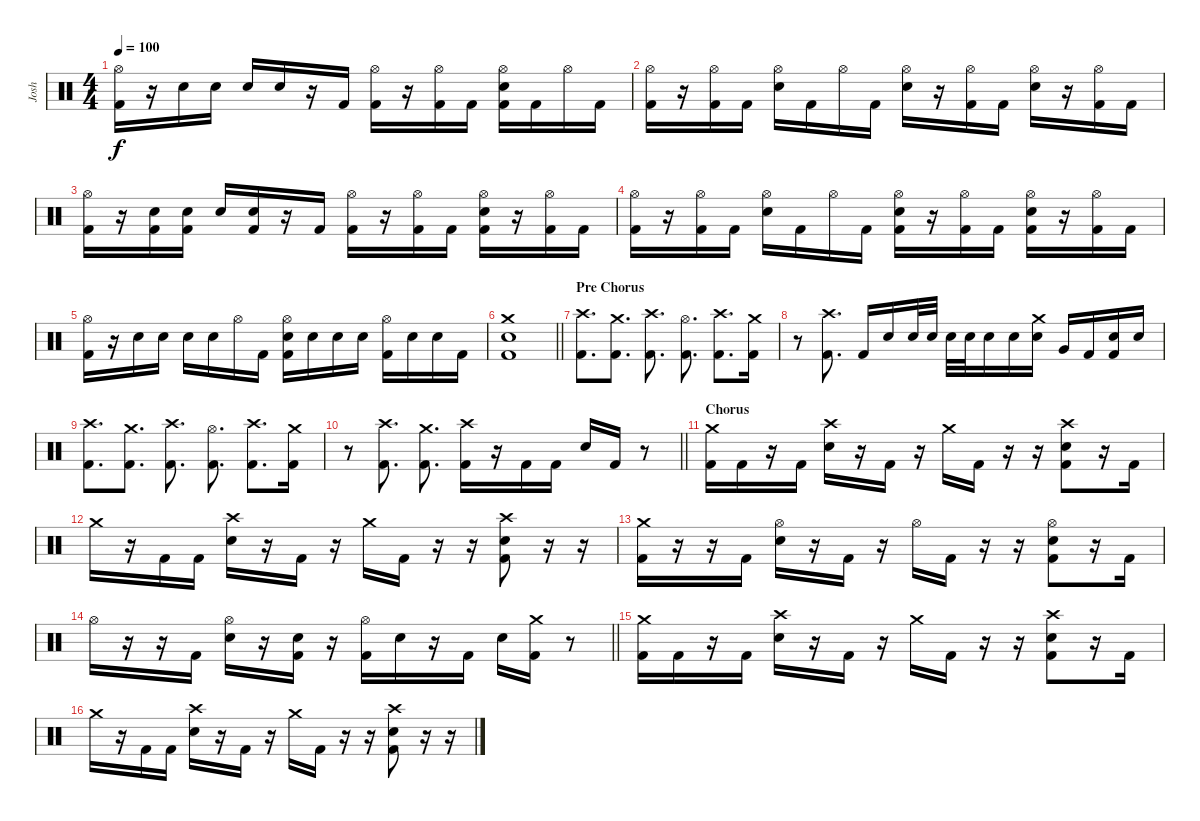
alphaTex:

\track ("Josh" "Josh") {instrument percussion}
\staff {score}
\articulation defaults
\ts (4 4)
\tempo 100
\clef neutral
\ks c
("Hi-Hat (open)" "Kick (hit) 2").16{dy f} r.16 "Snare (hit) 2".16 "Snare (hit) 2".16 "Snare (hit) 2".16 "Snare (hit) 2".16 r.16 "Kick (hit) 2".16 ("Hi-Hat (open)" "Kick (hit) 2").16 r.16 ("Hi-Hat (open)" "Kick (hit) 2").16 "Kick (hit) 2".16 ("Hi-Hat (open)" "Snare (hit) 2" "Kick (hit) 2").16 "Kick (hit) 2".16 "Hi-Hat (open)".16 "Kick (hit) 2".16 |
("Hi-Hat (open)" "Kick (hit) 2").16 r.16 ("Hi-Hat (open)" "Kick (hit) 2").16 "Kick (hit) 2".16 ("Hi-Hat (open)" "Snare (hit) 2").16 "Kick (hit) 2".16 "Hi-Hat (open)".16 "Kick (hit) 2".16 ("Hi-Hat (open)" "Snare (hit) 2").16 r.16 ("Hi-Hat (open)" "Kick (hit) 2").16 "Kick (hit) 2".16 ("Hi-Hat (open)" "Snare (hit) 2").16 r.16 ("Hi-Hat (open)" "Kick (hit) 2").16 "Kick (hit) 2".16 |
("Hi-Hat (open)" "Kick (hit) 2").16 r.16 ("Snare (hit) 2" "Kick (hit) 2").16 ("Snare (hit) 2" "Kick (hit) 2").16 "Snare (hit) 2".16 ("Snare (hit) 2" "Kick (hit) 2").16 r.16 "Kick (hit) 2".16 ("Hi-Hat (open)" "Kick (hit) 2").16 r.16 ("Hi-Hat (open)" "Kick (hit) 2").16 "Kick (hit) 2".16 ("Hi-Hat (open)" "Snare (hit) 2" "Kick (hit) 2").16 r.16 ("Hi-Hat (open)" "Kick (hit) 2").16 "Kick (hit) 2".16 |
("Hi-Hat (open)" "Kick (hit) 2").16 r.16 ("Hi-Hat (open)" "Kick (hit) 2").16 "Kick (hit) 2".16 ("Hi-Hat (open)" "Snare (hit) 2").16 "Kick (hit) 2".16 "Hi-Hat (open)".16 "Kick (hit) 2".16 ("Hi-Hat (open)" "Snare (hit) 2" "Kick (hit) 2").16 r.16 ("Hi-Hat (open)" "Kick (hit) 2").16 "Kick (hit) 2".16 ("Hi-Hat (open)" "Snare (hit) 2" "Kick (hit) 2").16 r.16 ("Hi-Hat (open)" "Kick (hit) 2").16 "Kick (hit) 2".16 |
("Hi-Hat (open)" "Kick (hit) 2").16 r.16 "Snare (hit) 2".16 "Snare (hit) 2".16 "Snare (hit) 2".16 "Snare (hit) 2".16 "Hi-Hat (open)".16 "Kick (hit) 2".16 ("Hi-Hat (open)" "Snare (hit) 2" "Kick (hit) 2").16 "Snare (hit) 2".16 "Snare (hit) 2".16 "Snare (hit) 2".16 ("Hi-Hat (open)" "Kick (hit) 2").16 "Snare (hit) 2".16 "Snare (hit) 2".16 "Kick (hit) 2".16 |
\barLineRight lightlight
("Crash medium (hit)" "Snare (hit) 2" "Kick (hit) 2").1 |
\section ("" "Pre Chorus")
("Crash high (hit)" "Kick (hit) 2").8{d} ("Crash medium (hit)" "Kick (hit) 2").8{d} ("Crash high (hit)" "Kick (hit) 2").8{d} ("Hi-Hat (open)" "Kick (hit) 2").8{d} ("Crash high (hit)" "Kick (hit) 2").8{d} ("Crash medium (hit)" "Kick (hit) 2").16 |
r.8 ("Crash high (hit)" "Kick (hit) 2").8{d} "Kick (hit) 2".16 "Snare (hit) 2".16 "Snare (hit) 2".32 "Snare (hit) 2".32 "Snare (hit) 2".32 "Snare (hit) 2".32 "Snare (hit) 2".16 "Snare (hit) 2".16 ("Crash medium (hit)" "Snare (hit) 2").16 "Very Low Tom (hit)".16 "Kick (hit) 2".16 ("Snare (hit) 2" "Kick (hit) 2").16 "Snare (hit) 2".16 |
("Crash high (hit)" "Kick (hit) 2").8{d} ("Crash medium (hit)" "Kick (hit) 2").8{d} ("Crash high (hit)" "Kick (hit) 2").8{d} ("Hi-Hat (open)" "Kick (hit) 2").8{d} ("Crash high (hit)" "Kick (hit) 2").8{d} ("Crash medium (hit)" "Kick (hit) 2").16 |
\barLineRight lightlight
r.8 ("Crash high (hit)" "Kick (hit) 2").8{d} ("Crash medium (hit)" "Kick (hit) 2").8{d} ("Crash high (hit)" "Kick (hit) 2").16 r.16 "Kick (hit) 2".16 "Kick (hit) 2".16 "Snare (hit) 2".16 "Kick (hit) 2".16 r.8 |
\section ("" "Chorus")
("Crash medium (hit)" "Kick (hit) 2").16 "Kick (hit) 2".16 r.16 "Kick (hit) 2".16 ("Crash high (hit)" "Snare (hit) 2").16 r.16 "Kick (hit) 2".16 r.16 "Crash medium (hit)".16 "Kick (hit) 2".16 r.16 r.16 ("Crash high (hit)" "Snare (hit) 2" "Kick (hit) 2").8 r.16 "Kick (hit) 2".16 |
"Crash medium (hit)".16 r.16 "Kick (hit) 2".16 "Kick (hit) 2".16 ("Crash high (hit)" "Snare (hit) 2").16 r.16 "Kick (hit) 2".16 r.16 "Crash medium (hit)".16 "Kick (hit) 2".16 r.16 r.16 ("Crash high (hit)" "Snare (hit) 2" "Kick (hit) 2").8 r.16 r.16 |
("Crash medium (hit)" "Kick (hit) 2").16 r.16 r.16 "Kick (hit) 2".16 ("Hi-Hat (open)" "Snare (hit) 2").16 r.16 "Kick (hit) 2".16 r.16 "Hi-Hat (open)".16 "Kick (hit) 2".16 r.16 r.16 ("Hi-Hat (open)" "Snare (hit) 2" "Kick (hit) 2").8 r.16 "Kick (hit) 2".16 |
\barLineRight lightlight "Hi-Hat (open)".16
r.16 r.16 "Kick (hit) 2".16 ("Hi-Hat (open)" "Snare (hit) 2").16 r.16 ("Snare (hit) 2" "Kick (hit) 2").16 r.16 ("Hi-Hat (open)" "Kick (hit) 2").16 "Snare (hit) 2".16 r.16 "Kick (hit) 2".16 "Snare (hit) 2".16 ("Crash medium (hit)" "Kick (hit) 2").16 r.8 |
("Crash medium (hit)" "Kick (hit) 2").16 "Kick (hit) 2".16 r.16 "Kick (hit) 2".16 ("Crash high (hit)" "Snare (hit) 2").16 r.16 "Kick (hit) 2".16 r.16 "Crash medium (hit)".16 "Kick (hit) 2".16 r.16 r.16 ("Crash high (hit)" "Snare (hit) 2" "Kick (hit) 2").8 r.16 "Kick (hit) 2".16 |
"Crash medium (hit)".16 r.16 "Kick (hit) 2".16 "Kick (hit) 2".16 ("Crash high (hit)" "Snare (hit) 2").16 r.16 "Kick (hit) 2".16 r.16 "Crash medium (hit)".16 "Kick (hit) 2".16 r.16 r.16 ("Crash high (hit)" "Snare (hit) 2" "Kick (hit) 2").8 r.16 r.16
